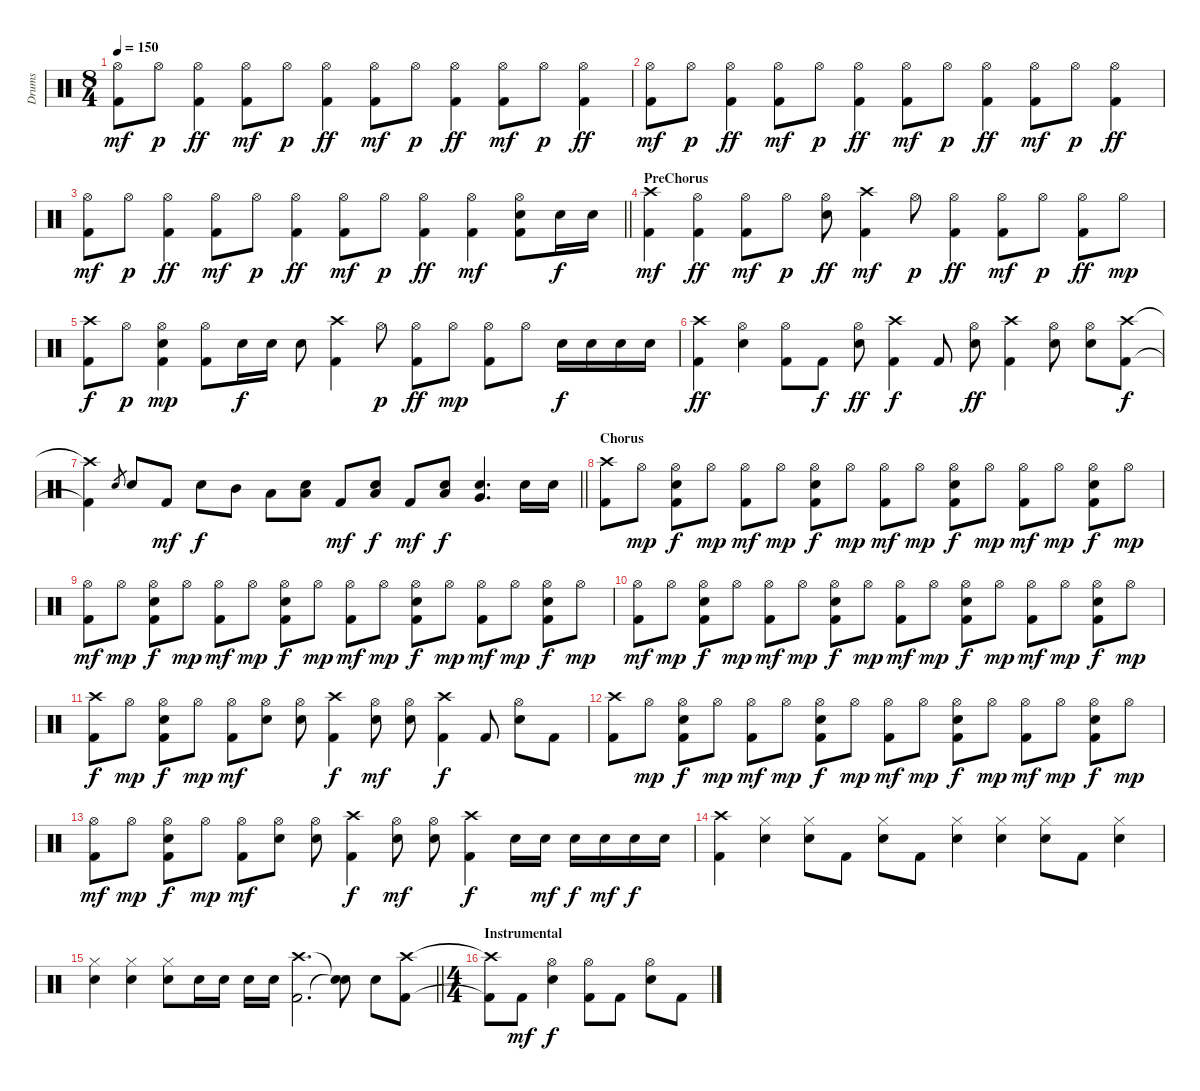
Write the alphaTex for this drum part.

\track ("Drums" "Drums") {instrument percussion}
\staff {score}
\articulation defaults
\ts (8 4)
\tempo 150
\clef neutral
\ks c
("Hi-Hat (open)" "Kick (hit) 2").8{dy mf} "Hi-Hat (open)".8{dy p} ("Hi-Hat (open)" "Kick (hit) 2").4{dy ff} ("Hi-Hat (open)" "Kick (hit) 2").8{dy mf} "Hi-Hat (open)".8{dy p} ("Hi-Hat (open)" "Kick (hit) 2").4{dy ff} ("Hi-Hat (open)" "Kick (hit) 2").8{dy mf} "Hi-Hat (open)".8{dy p} ("Hi-Hat (open)" "Kick (hit) 2").4{dy ff} ("Hi-Hat (open)" "Kick (hit) 2").8{dy mf} "Hi-Hat (open)".8{dy p} ("Hi-Hat (open)" "Kick (hit) 2").4{dy ff} |
("Hi-Hat (open)" "Kick (hit) 2").8{dy mf} "Hi-Hat (open)".8{dy p} ("Hi-Hat (open)" "Kick (hit) 2").4{dy ff} ("Hi-Hat (open)" "Kick (hit) 2").8{dy mf} "Hi-Hat (open)".8{dy p} ("Hi-Hat (open)" "Kick (hit) 2").4{dy ff} ("Hi-Hat (open)" "Kick (hit) 2").8{dy mf} "Hi-Hat (open)".8{dy p} ("Hi-Hat (open)" "Kick (hit) 2").4{dy ff} ("Hi-Hat (open)" "Kick (hit) 2").8{dy mf} "Hi-Hat (open)".8{dy p} ("Hi-Hat (open)" "Kick (hit) 2").4{dy ff} |
\barLineRight lightlight
("Hi-Hat (open)" "Kick (hit) 2").8{dy mf} "Hi-Hat (open)".8{dy p} ("Hi-Hat (open)" "Kick (hit) 2").4{dy ff} ("Hi-Hat (open)" "Kick (hit) 2").8{dy mf} "Hi-Hat (open)".8{dy p} ("Hi-Hat (open)" "Kick (hit) 2").4{dy ff} ("Hi-Hat (open)" "Kick (hit) 2").8{dy mf} "Hi-Hat (open)".8{dy p} ("Hi-Hat (open)" "Kick (hit) 2").4{dy ff} ("Hi-Hat (open)" "Kick (hit) 2").4{dy mf} ("Hi-Hat (open)" "Electric Snare (hit)" "Kick (hit) 2").8 "Electric Snare (hit)".16{dy f} "Electric Snare (hit)".16 |
\section ("" "PreChorus")
("Crash high (hit)" "Kick (hit) 2").4{dy mf} ("Hi-Hat (open)" "Kick (hit) 2").4{dy ff} ("Hi-Hat (open)" "Kick (hit) 2").8{dy mf} "Hi-Hat (open)".8{dy p} ("Hi-Hat (open)" "Electric Snare (hit)").8{dy ff} ("Crash high (hit)" "Kick (hit) 2").4{dy mf} "Hi-Hat (open)".8{dy p} ("Hi-Hat (open)" "Kick (hit) 2").4{dy ff} ("Hi-Hat (open)" "Kick (hit) 2").8{dy mf} "Hi-Hat (open)".8{dy p} ("Hi-Hat (open)" "Kick (hit) 2").8{dy ff} "Hi-Hat (open)".8{dy mp} |
("Crash high (hit)" "Kick (hit) 2").8{dy f} "Hi-Hat (open)".8{dy p} ("Hi-Hat (open)" "Electric Snare (hit)" "Kick (hit) 2").4{dy mp} ("Hi-Hat (open)" "Kick (hit) 2").8 "Electric Snare (hit)".16{dy f} "Electric Snare (hit)".16 "Electric Snare (hit)".8 ("Crash high (hit)" "Kick (hit) 2").4 "Hi-Hat (open)".8{dy p} ("Hi-Hat (open)" "Kick (hit) 2").8{dy ff} "Hi-Hat (open)".8{dy mp} ("Hi-Hat (open)" "Kick (hit) 2").8 "Hi-Hat (open)".8 "Electric Snare (hit)".16{dy f} "Electric Snare (hit)".16 "Electric Snare (hit)".16 "Electric Snare (hit)".16 |
("Crash high (hit)" "Kick (hit) 2").4{dy ff} ("Hi-Hat (open)" "Electric Snare (hit)").4 ("Hi-Hat (open)" "Kick (hit) 2").8 "Kick (hit) 2".8{dy f} ("Hi-Hat (open)" "Electric Snare (hit)").8{dy ff} ("Crash high (hit)" "Kick (hit) 2").4{dy f} "Kick (hit) 2".8 ("Hi-Hat (open)" "Electric Snare (hit)").8{dy ff} ("Crash high (hit)" "Kick (hit) 2").4 ("Hi-Hat (open)" "Electric Snare (hit)").8 ("Hi-Hat (open)" "Electric Snare (hit)").8 ("Crash high (hit)" "Kick (hit) 2").8{dy f} |
\barLineRight lightlight
("Crash high (hit)"{t} "Kick (hit) 2"{t}).4 "Electric Snare (hit)".8{gr} "Electric Snare (hit)".8 "Kick (hit) 2".8{dy mf} "Electric Snare (hit)".8{dy f} "Mid Tom (hit)".8 "Low Tom (hit)".8 ("Electric Snare (hit)" "Low Tom (hit)").8 "Kick (hit) 2".8{dy mf} ("Electric Snare (hit)" "Low Tom (hit)").8{dy f} "Kick (hit) 2".8{dy mf} ("Electric Snare (hit)" "Low Tom (hit)").8{dy f} ("Electric Snare (hit)" "Very Low Tom (hit)").4{d} "Electric Snare (hit)".16 "Electric Snare (hit)".16 |
\section ("" "Chorus")
("Crash high (hit)" "Kick (hit) 2").8 "Hi-Hat (open)".8{dy mp} ("Hi-Hat (open)" "Electric Snare (hit)" "Kick (hit) 2").8{dy f} "Hi-Hat (open)".8{dy mp} ("Hi-Hat (open)" "Kick (hit) 2").8{dy mf} "Hi-Hat (open)".8{dy mp} ("Hi-Hat (open)" "Electric Snare (hit)" "Kick (hit) 2").8{dy f} "Hi-Hat (open)".8{dy mp} ("Hi-Hat (open)" "Kick (hit) 2").8{dy mf} "Hi-Hat (open)".8{dy mp} ("Hi-Hat (open)" "Electric Snare (hit)" "Kick (hit) 2").8{dy f} "Hi-Hat (open)".8{dy mp} ("Hi-Hat (open)" "Kick (hit) 2").8{dy mf} "Hi-Hat (open)".8{dy mp} ("Hi-Hat (open)" "Electric Snare (hit)" "Kick (hit) 2").8{dy f} "Hi-Hat (open)".8{dy mp} |
("Hi-Hat (open)" "Kick (hit) 2").8{dy mf} "Hi-Hat (open)".8{dy mp} ("Hi-Hat (open)" "Electric Snare (hit)" "Kick (hit) 2").8{dy f} "Hi-Hat (open)".8{dy mp} ("Hi-Hat (open)" "Kick (hit) 2").8{dy mf} "Hi-Hat (open)".8{dy mp} ("Hi-Hat (open)" "Electric Snare (hit)" "Kick (hit) 2").8{dy f} "Hi-Hat (open)".8{dy mp} ("Hi-Hat (open)" "Kick (hit) 2").8{dy mf} "Hi-Hat (open)".8{dy mp} ("Hi-Hat (open)" "Electric Snare (hit)" "Kick (hit) 2").8{dy f} "Hi-Hat (open)".8{dy mp} ("Hi-Hat (open)" "Kick (hit) 2").8{dy mf} "Hi-Hat (open)".8{dy mp} ("Hi-Hat (open)" "Electric Snare (hit)" "Kick (hit) 2").8{dy f} "Hi-Hat (open)".8{dy mp} |
("Hi-Hat (open)" "Kick (hit) 2").8{dy mf} "Hi-Hat (open)".8{dy mp} ("Hi-Hat (open)" "Electric Snare (hit)" "Kick (hit) 2").8{dy f} "Hi-Hat (open)".8{dy mp} ("Hi-Hat (open)" "Kick (hit) 2").8{dy mf} "Hi-Hat (open)".8{dy mp} ("Hi-Hat (open)" "Electric Snare (hit)" "Kick (hit) 2").8{dy f} "Hi-Hat (open)".8{dy mp} ("Hi-Hat (open)" "Kick (hit) 2").8{dy mf} "Hi-Hat (open)".8{dy mp} ("Hi-Hat (open)" "Electric Snare (hit)" "Kick (hit) 2").8{dy f} "Hi-Hat (open)".8{dy mp} ("Hi-Hat (open)" "Kick (hit) 2").8{dy mf} "Hi-Hat (open)".8{dy mp} ("Hi-Hat (open)" "Electric Snare (hit)" "Kick (hit) 2").8{dy f} "Hi-Hat (open)".8{dy mp} |
("Crash high (hit)" "Kick (hit) 2").8{dy f} "Hi-Hat (open)".8{dy mp} ("Hi-Hat (open)" "Electric Snare (hit)" "Kick (hit) 2").8{dy f} "Hi-Hat (open)".8{dy mp} ("Hi-Hat (open)" "Kick (hit) 2").8{dy mf} ("Hi-Hat (open)" "Electric Snare (hit)").8 ("Hi-Hat (open)" "Electric Snare (hit)").8 ("Crash high (hit)" "Kick (hit) 2").4{dy f} ("Hi-Hat (open)" "Electric Snare (hit)").8{dy mf} ("Hi-Hat (open)" "Electric Snare (hit)").8 ("Crash high (hit)" "Kick (hit) 2").4{dy f} "Kick (hit) 2".8 ("Hi-Hat (open)" "Electric Snare (hit)").8 "Kick (hit) 2".8 |
("Crash high (hit)" "Kick (hit) 2").8 "Hi-Hat (open)".8{dy mp} ("Hi-Hat (open)" "Electric Snare (hit)" "Kick (hit) 2").8{dy f} "Hi-Hat (open)".8{dy mp} ("Hi-Hat (open)" "Kick (hit) 2").8{dy mf} "Hi-Hat (open)".8{dy mp} ("Hi-Hat (open)" "Electric Snare (hit)" "Kick (hit) 2").8{dy f} "Hi-Hat (open)".8{dy mp} ("Hi-Hat (open)" "Kick (hit) 2").8{dy mf} "Hi-Hat (open)".8{dy mp} ("Hi-Hat (open)" "Electric Snare (hit)" "Kick (hit) 2").8{dy f} "Hi-Hat (open)".8{dy mp} ("Hi-Hat (open)" "Kick (hit) 2").8{dy mf} "Hi-Hat (open)".8{dy mp} ("Hi-Hat (open)" "Electric Snare (hit)" "Kick (hit) 2").8{dy f} "Hi-Hat (open)".8{dy mp} |
("Hi-Hat (open)" "Kick (hit) 2").8{dy mf} "Hi-Hat (open)".8{dy mp} ("Hi-Hat (open)" "Electric Snare (hit)" "Kick (hit) 2").8{dy f} "Hi-Hat (open)".8{dy mp} ("Hi-Hat (open)" "Kick (hit) 2").8{dy mf} ("Hi-Hat (open)" "Electric Snare (hit)").8 ("Hi-Hat (open)" "Electric Snare (hit)").8 ("Crash high (hit)" "Kick (hit) 2").4{dy f} ("Hi-Hat (open)" "Electric Snare (hit)").8{dy mf} ("Hi-Hat (open)" "Electric Snare (hit)").8 ("Crash high (hit)" "Kick (hit) 2").4{dy f} "Electric Snare (hit)".16 "Electric Snare (hit)".16{dy mf} "Electric Snare (hit)".16{dy f} "Electric Snare (hit)".16{dy mf} "Electric Snare (hit)".16{dy f} "Electric Snare (hit)".16 |
("Crash high (hit)" "Kick (hit) 2").4 ("Hi-Hat (closed)" "Electric Snare (hit)").4 ("Hi-Hat (closed)" "Electric Snare (hit)").8 "Kick (hit) 2".8 ("Hi-Hat (closed)" "Electric Snare (hit)").8 "Kick (hit) 2".8 ("Hi-Hat (closed)" "Electric Snare (hit)").4 ("Hi-Hat (closed)" "Electric Snare (hit)").4 ("Hi-Hat (closed)" "Electric Snare (hit)").8 "Kick (hit) 2".8 ("Hi-Hat (closed)" "Electric Snare (hit)").4 |
\barLineRight lightlight
("Hi-Hat (closed)" "Electric Snare (hit)").4 ("Hi-Hat (closed)" "Electric Snare (hit)").4 ("Hi-Hat (closed)" "Electric Snare (hit)").8 "Electric Snare (hit)".16 "Electric Snare (hit)".16 "Electric Snare (hit)".16 "Electric Snare (hit)".16 ("Crash high (hit)" "Kick (hit) 2").2{d} ("Snare (hit)"{t} "Snare (hit)"{t}).8 "Electric Snare (hit)".8 ("Crash high (hit)" "Kick (hit) 2").8 |
\ts (4 4)
\section ("" "Instrumental")
("Crash high (hit)"{t} "Kick (hit) 2"{t}).8 "Kick (hit) 2".8{dy mf} ("Hi-Hat (open)" "Electric Snare (hit)").4{dy f} ("Hi-Hat (open)" "Kick (hit) 2").8 "Kick (hit) 2".8 ("Hi-Hat (open)" "Electric Snare (hit)").8 "Kick (hit) 2".8
